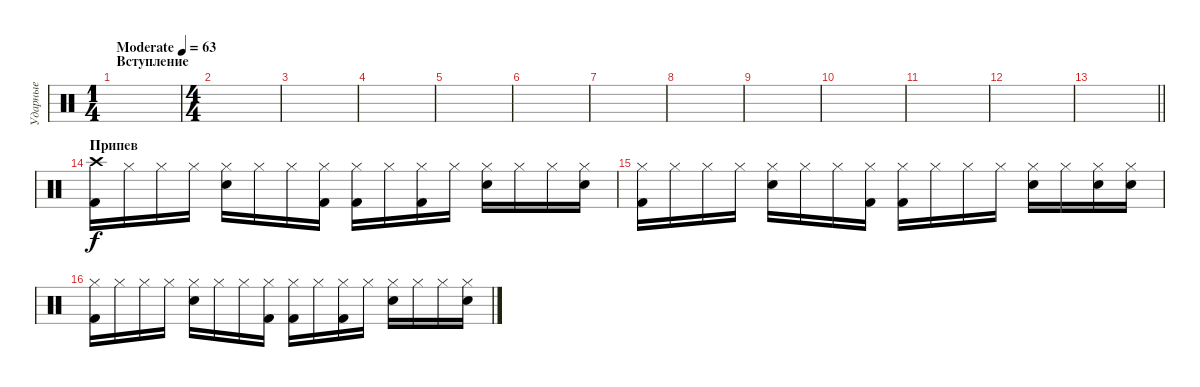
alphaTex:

\track ("Ударные" "Ударные") {instrument percussion}
\staff {score}
\articulation defaults
\ts (1 4)
\section ("" "Вступление")
\tempo (63 "Moderate")
\clef neutral
\ks c
|
\ts (4 4)
|
|
|
|
|
|
|
|
|
|
|
\barLineRight lightlight
|
\section ("" "Припев")
("Crash high (hit)" "Kick (hit) 2").16 "Hi-Hat (closed)".16 "Hi-Hat (closed)".16 "Hi-Hat (closed)".16 ("Hi-Hat (closed)" "Electric Snare (hit)").16 "Hi-Hat (closed)".16 "Hi-Hat (closed)".16 ("Hi-Hat (closed)" "Kick (hit) 2").16 ("Hi-Hat (closed)" "Kick (hit) 2").16 "Hi-Hat (closed)".16 ("Hi-Hat (closed)" "Kick (hit) 2").16 "Hi-Hat (closed)".16 ("Hi-Hat (closed)" "Electric Snare (hit)").16 "Hi-Hat (closed)".16 "Hi-Hat (closed)".16 ("Hi-Hat (closed)" "Electric Snare (hit)").16 |
("Hi-Hat (closed)" "Kick (hit) 2").16 "Hi-Hat (closed)".16 "Hi-Hat (closed)".16 "Hi-Hat (closed)".16 ("Hi-Hat (closed)" "Electric Snare (hit)").16 "Hi-Hat (closed)".16 "Hi-Hat (closed)".16 ("Hi-Hat (closed)" "Kick (hit) 2").16 ("Hi-Hat (closed)" "Kick (hit) 2").16 "Hi-Hat (closed)".16 "Hi-Hat (closed)".16 "Hi-Hat (closed)".16 ("Hi-Hat (closed)" "Electric Snare (hit)").16 "Hi-Hat (closed)".16 ("Hi-Hat (closed)" "Electric Snare (hit)").16 ("Hi-Hat (closed)" "Electric Snare (hit)").16 |
("Hi-Hat (closed)" "Kick (hit) 2").16 "Hi-Hat (closed)".16 "Hi-Hat (closed)".16 "Hi-Hat (closed)".16 ("Hi-Hat (closed)" "Electric Snare (hit)").16 "Hi-Hat (closed)".16 "Hi-Hat (closed)".16 ("Hi-Hat (closed)" "Kick (hit) 2").16 ("Hi-Hat (closed)" "Kick (hit) 2").16 "Hi-Hat (closed)".16 ("Hi-Hat (closed)" "Kick (hit) 2").16 "Hi-Hat (closed)".16 ("Hi-Hat (closed)" "Electric Snare (hit)").16 "Hi-Hat (closed)".16 "Hi-Hat (closed)".16 ("Hi-Hat (closed)" "Electric Snare (hit)").16
